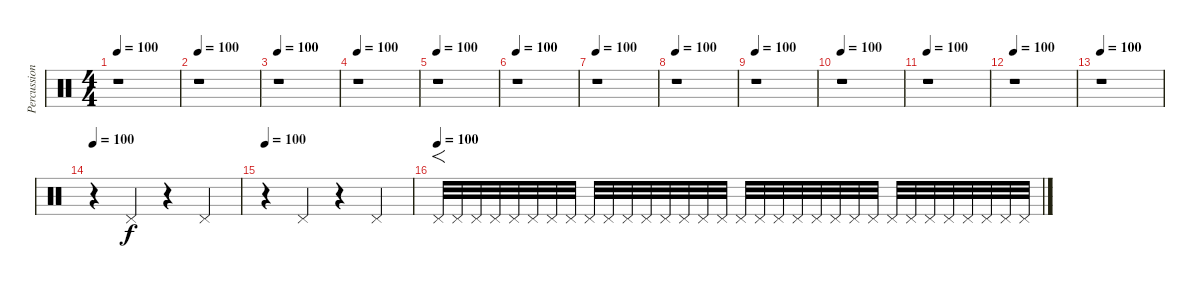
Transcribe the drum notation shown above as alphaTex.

\track ("Percussions" "Percussion") {instrument percussion}
\staff {score}
\articulation defaults
\ts (4 4)
\tempo 100
\clef neutral
\ks c
r.1{dy mp} |
\tempo 100
r.1 |
\tempo 100
r.1 |
\tempo 100
r.1 |
\tempo 100
r.1 |
\tempo 100
r.1 |
\tempo 100
r.1 |
\tempo 100
r.1 |
\tempo 100
r.1 |
\tempo 100
r.1 |
\tempo 100
r.1 |
\tempo 100
r.1 |
\tempo 100
r.1 |
\tempo 100
r.4 "Pedal Hi-Hat (hit)".4{dy f} r.4 "Pedal Hi-Hat (hit)".4 |
\tempo 100
r.4 "Pedal Hi-Hat (hit)".4 r.4 "Pedal Hi-Hat (hit)".4 |
\tempo (100)
"Pedal Hi-Hat (hit)".32{f volume 5} "Pedal Hi-Hat (hit)".32 "Pedal Hi-Hat (hit)".32 "Pedal Hi-Hat (hit)".32 "Pedal Hi-Hat (hit)".32 "Pedal Hi-Hat (hit)".32 "Pedal Hi-Hat (hit)".32 "Pedal Hi-Hat (hit)".32 "Pedal Hi-Hat (hit)".32{volume 9} "Pedal Hi-Hat (hit)".32 "Pedal Hi-Hat (hit)".32 "Pedal Hi-Hat (hit)".32 "Pedal Hi-Hat (hit)".32 "Pedal Hi-Hat (hit)".32 "Pedal Hi-Hat (hit)".32 "Pedal Hi-Hat (hit)".32 "Pedal Hi-Hat (hit)".32{volume 12} "Pedal Hi-Hat (hit)".32 "Pedal Hi-Hat (hit)".32 "Pedal Hi-Hat (hit)".32 "Pedal Hi-Hat (hit)".32 "Pedal Hi-Hat (hit)".32 "Pedal Hi-Hat (hit)".32 "Pedal Hi-Hat (hit)".32 "Pedal Hi-Hat (hit)".32{volume 14} "Pedal Hi-Hat (hit)".32 "Pedal Hi-Hat (hit)".32 "Pedal Hi-Hat (hit)".32 "Pedal Hi-Hat (hit)".32 "Pedal Hi-Hat (hit)".32 "Pedal Hi-Hat (hit)".32 "Pedal Hi-Hat (hit)".32
